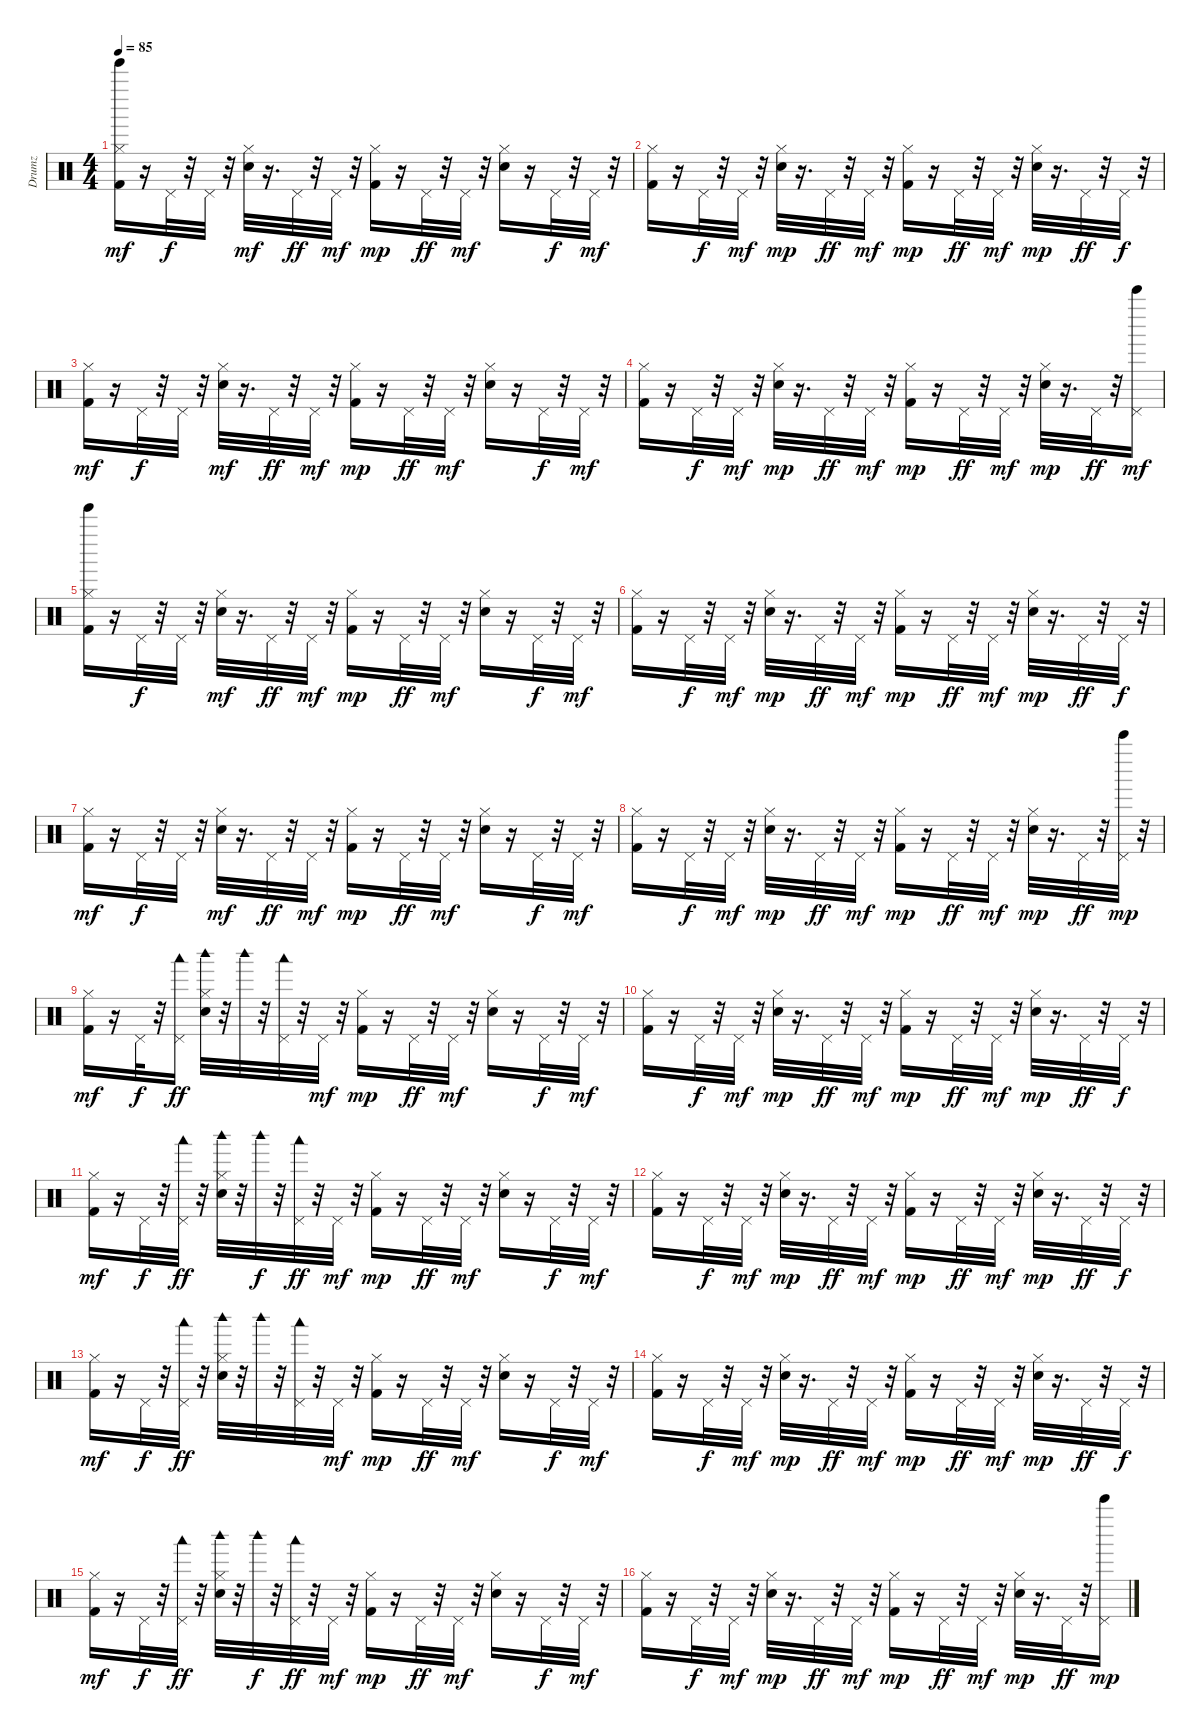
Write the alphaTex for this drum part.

\track ("Drumz" "Drumz") {instrument percussion}
\staff {score}
\articulation defaults
\ts (4 4)
\tempo 85
\clef neutral
\ks c
("Tinkle Bell (hit)" "Kick (hit) 2" "Hi-Hat (closed)").16{dy mf volume 12} r.16 "Pedal Hi-Hat (hit)".32{dy f} r.32 "Pedal Hi-Hat (hit)".32 r.32 ("Hand Clap (hit)" "Hi-Hat (closed)").32{dy mf} r.16{d} "Pedal Hi-Hat (hit)".32{dy ff} r.32 "Pedal Hi-Hat (hit)".32{dy mf} r.32 ("Kick (hit) 2" "Hi-Hat (closed)").16{dy mp} r.16 "Pedal Hi-Hat (hit)".32{dy ff} r.32 "Pedal Hi-Hat (hit)".32{dy mf} r.32 ("Hand Clap (hit)" "Hi-Hat (closed)").16 r.16 "Pedal Hi-Hat (hit)".32{dy f} r.32 "Pedal Hi-Hat (hit)".32{dy mf} r.32 |
("Kick (hit) 2" "Hi-Hat (closed)").16 r.16 "Pedal Hi-Hat (hit)".32{dy f} r.32 "Pedal Hi-Hat (hit)".32{dy mf} r.32 ("Hand Clap (hit)" "Hi-Hat (closed)").32{dy mp} r.16{d} "Pedal Hi-Hat (hit)".32{dy ff} r.32 "Pedal Hi-Hat (hit)".32{dy mf} r.32 ("Kick (hit) 2" "Hi-Hat (closed)").16{dy mp} r.16 "Pedal Hi-Hat (hit)".32{dy ff} r.32 "Pedal Hi-Hat (hit)".32{dy mf} r.32 ("Hand Clap (hit)" "Hi-Hat (closed)").32{dy mp} r.16{d} "Pedal Hi-Hat (hit)".32{dy ff} r.32 "Pedal Hi-Hat (hit)".32{dy f} r.32 |
("Kick (hit) 2" "Hi-Hat (closed)").16{dy mf} r.16 "Pedal Hi-Hat (hit)".32{dy f} r.32 "Pedal Hi-Hat (hit)".32 r.32 ("Hand Clap (hit)" "Hi-Hat (closed)").32{dy mf} r.16{d} "Pedal Hi-Hat (hit)".32{dy ff} r.32 "Pedal Hi-Hat (hit)".32{dy mf} r.32 ("Kick (hit) 2" "Hi-Hat (closed)").16{dy mp} r.16 "Pedal Hi-Hat (hit)".32{dy ff} r.32 "Pedal Hi-Hat (hit)".32{dy mf} r.32 ("Hand Clap (hit)" "Hi-Hat (closed)").16 r.16 "Pedal Hi-Hat (hit)".32{dy f} r.32 "Pedal Hi-Hat (hit)".32{dy mf} r.32 |
("Kick (hit) 2" "Hi-Hat (closed)").16 r.16 "Pedal Hi-Hat (hit)".32{dy f} r.32 "Pedal Hi-Hat (hit)".32{dy mf} r.32 ("Hand Clap (hit)" "Hi-Hat (closed)").32{dy mp} r.16{d} "Pedal Hi-Hat (hit)".32{dy ff} r.32 "Pedal Hi-Hat (hit)".32{dy mf} r.32 ("Kick (hit) 2" "Hi-Hat (closed)").16{dy mp} r.16 "Pedal Hi-Hat (hit)".32{dy ff} r.32 "Pedal Hi-Hat (hit)".32{dy mf} r.32 ("Hand Clap (hit)" "Hi-Hat (closed)").32{dy mp} r.16{d} "Pedal Hi-Hat (hit)".32{dy ff} r.32 ("Pedal Hi-Hat (hit)" "Bell Tree (hit)").16{dy mf} |
("Kick (hit) 2" "Hi-Hat (closed)" "Tinkle Bell (hit)").16 r.16 "Pedal Hi-Hat (hit)".32{dy f} r.32 "Pedal Hi-Hat (hit)".32 r.32 ("Hand Clap (hit)" "Hi-Hat (closed)").32{dy mf} r.16{d} "Pedal Hi-Hat (hit)".32{dy ff} r.32 "Pedal Hi-Hat (hit)".32{dy mf} r.32 ("Kick (hit) 2" "Hi-Hat (closed)").16{dy mp} r.16 "Pedal Hi-Hat (hit)".32{dy ff} r.32 "Pedal Hi-Hat (hit)".32{dy mf} r.32 ("Hand Clap (hit)" "Hi-Hat (closed)").16 r.16 "Pedal Hi-Hat (hit)".32{dy f} r.32 "Pedal Hi-Hat (hit)".32{dy mf} r.32 |
("Kick (hit) 2" "Hi-Hat (closed)").16 r.16 "Pedal Hi-Hat (hit)".32{dy f} r.32 "Pedal Hi-Hat (hit)".32{dy mf} r.32 ("Hand Clap (hit)" "Hi-Hat (closed)").32{dy mp} r.16{d} "Pedal Hi-Hat (hit)".32{dy ff} r.32 "Pedal Hi-Hat (hit)".32{dy mf} r.32 ("Kick (hit) 2" "Hi-Hat (closed)").16{dy mp} r.16 "Pedal Hi-Hat (hit)".32{dy ff} r.32 "Pedal Hi-Hat (hit)".32{dy mf} r.32 ("Hand Clap (hit)" "Hi-Hat (closed)").32{dy mp} r.16{d} "Pedal Hi-Hat (hit)".32{dy ff} r.32 "Pedal Hi-Hat (hit)".32{dy f} r.32 |
("Kick (hit) 2" "Hi-Hat (closed)").16{dy mf} r.16 "Pedal Hi-Hat (hit)".32{dy f} r.32 "Pedal Hi-Hat (hit)".32 r.32 ("Hand Clap (hit)" "Hi-Hat (closed)").32{dy mf} r.16{d} "Pedal Hi-Hat (hit)".32{dy ff} r.32 "Pedal Hi-Hat (hit)".32{dy mf} r.32 ("Kick (hit) 2" "Hi-Hat (closed)").16{dy mp} r.16 "Pedal Hi-Hat (hit)".32{dy ff} r.32 "Pedal Hi-Hat (hit)".32{dy mf} r.32 ("Hand Clap (hit)" "Hi-Hat (closed)").16 r.16 "Pedal Hi-Hat (hit)".32{dy f} r.32 "Pedal Hi-Hat (hit)".32{dy mf} r.32 |
("Kick (hit) 2" "Hi-Hat (closed)").16 r.16 "Pedal Hi-Hat (hit)".32{dy f} r.32 "Pedal Hi-Hat (hit)".32{dy mf} r.32 ("Hand Clap (hit)" "Hi-Hat (closed)").32{dy mp} r.16{d} "Pedal Hi-Hat (hit)".32{dy ff} r.32 "Pedal Hi-Hat (hit)".32{dy mf} r.32 ("Kick (hit) 2" "Hi-Hat (closed)").16{dy mp} r.16 "Pedal Hi-Hat (hit)".32{dy ff} r.32 "Pedal Hi-Hat (hit)".32{dy mf} r.32 ("Hand Clap (hit)" "Hi-Hat (closed)").32{dy mp} r.16{d} "Pedal Hi-Hat (hit)".32{dy ff} r.32 ("Pedal Hi-Hat (hit)" "Bell Tree (hit)").32{dy mp} r.32 |
("Kick (hit) 2" "Hi-Hat (closed)").16{dy mf volume 12} r.16 "Pedal Hi-Hat (hit)".32{dy f} r.32 ("Pedal Hi-Hat (hit)" "Woodblock low (hit)").16{dy ff} ("Hand Clap (hit)" "Hi-Hat (closed)" "Woodblock high (hit)").32 r.32 "Woodblock high (hit)".32 r.32 ("Pedal Hi-Hat (hit)" "Woodblock low (hit)").32 r.32 "Pedal Hi-Hat (hit)".32{dy mf} r.32 ("Kick (hit) 2" "Hi-Hat (closed)").16{dy mp} r.16 "Pedal Hi-Hat (hit)".32{dy ff} r.32 "Pedal Hi-Hat (hit)".32{dy mf} r.32 ("Hand Clap (hit)" "Hi-Hat (closed)").16 r.16 "Pedal Hi-Hat (hit)".32{dy f} r.32 "Pedal Hi-Hat (hit)".32{dy mf} r.32 |
("Kick (hit) 2" "Hi-Hat (closed)").16 r.16 "Pedal Hi-Hat (hit)".32{dy f} r.32 "Pedal Hi-Hat (hit)".32{dy mf} r.32 ("Hand Clap (hit)" "Hi-Hat (closed)").32{dy mp} r.16{d} "Pedal Hi-Hat (hit)".32{dy ff} r.32 "Pedal Hi-Hat (hit)".32{dy mf} r.32 ("Kick (hit) 2" "Hi-Hat (closed)").16{dy mp} r.16 "Pedal Hi-Hat (hit)".32{dy ff} r.32 "Pedal Hi-Hat (hit)".32{dy mf} r.32 ("Hand Clap (hit)" "Hi-Hat (closed)").32{dy mp} r.16{d} "Pedal Hi-Hat (hit)".32{dy ff} r.32 "Pedal Hi-Hat (hit)".32{dy f} r.32 |
("Kick (hit) 2" "Hi-Hat (closed)").16{dy mf} r.16 "Pedal Hi-Hat (hit)".32{dy f} r.32 ("Pedal Hi-Hat (hit)" "Woodblock low (hit)").32{dy ff} r.32 ("Hand Clap (hit)" "Hi-Hat (closed)" "Woodblock high (hit)").32 r.32 "Woodblock high (hit)".32{dy f} r.32 ("Pedal Hi-Hat (hit)" "Woodblock low (hit)").32{dy ff} r.32 "Pedal Hi-Hat (hit)".32{dy mf} r.32 ("Kick (hit) 2" "Hi-Hat (closed)").16{dy mp} r.16 "Pedal Hi-Hat (hit)".32{dy ff} r.32 "Pedal Hi-Hat (hit)".32{dy mf} r.32 ("Hand Clap (hit)" "Hi-Hat (closed)").16 r.16 "Pedal Hi-Hat (hit)".32{dy f} r.32 "Pedal Hi-Hat (hit)".32{dy mf} r.32 |
("Kick (hit) 2" "Hi-Hat (closed)").16 r.16 "Pedal Hi-Hat (hit)".32{dy f} r.32 "Pedal Hi-Hat (hit)".32{dy mf} r.32 ("Hand Clap (hit)" "Hi-Hat (closed)").32{dy mp} r.16{d} "Pedal Hi-Hat (hit)".32{dy ff} r.32 "Pedal Hi-Hat (hit)".32{dy mf} r.32 ("Kick (hit) 2" "Hi-Hat (closed)").16{dy mp} r.16 "Pedal Hi-Hat (hit)".32{dy ff} r.32 "Pedal Hi-Hat (hit)".32{dy mf} r.32 ("Hand Clap (hit)" "Hi-Hat (closed)").32{dy mp} r.16{d} "Pedal Hi-Hat (hit)".32{dy ff} r.32 "Pedal Hi-Hat (hit)".32{dy f} r.32 |
("Kick (hit) 2" "Hi-Hat (closed)").16{dy mf} r.16 "Pedal Hi-Hat (hit)".32{dy f} r.32 ("Pedal Hi-Hat (hit)" "Woodblock low (hit)").32{dy ff} r.32 ("Hand Clap (hit)" "Hi-Hat (closed)" "Woodblock high (hit)").32 r.32 "Woodblock high (hit)".32 r.32 ("Pedal Hi-Hat (hit)" "Woodblock low (hit)").32 r.32 "Pedal Hi-Hat (hit)".32{dy mf} r.32 ("Kick (hit) 2" "Hi-Hat (closed)").16{dy mp} r.16 "Pedal Hi-Hat (hit)".32{dy ff} r.32 "Pedal Hi-Hat (hit)".32{dy mf} r.32 ("Hand Clap (hit)" "Hi-Hat (closed)").16 r.16 "Pedal Hi-Hat (hit)".32{dy f} r.32 "Pedal Hi-Hat (hit)".32{dy mf} r.32 |
("Kick (hit) 2" "Hi-Hat (closed)").16 r.16 "Pedal Hi-Hat (hit)".32{dy f} r.32 "Pedal Hi-Hat (hit)".32{dy mf} r.32 ("Hand Clap (hit)" "Hi-Hat (closed)").32{dy mp} r.16{d} "Pedal Hi-Hat (hit)".32{dy ff} r.32 "Pedal Hi-Hat (hit)".32{dy mf} r.32 ("Kick (hit) 2" "Hi-Hat (closed)").16{dy mp} r.16 "Pedal Hi-Hat (hit)".32{dy ff} r.32 "Pedal Hi-Hat (hit)".32{dy mf} r.32 ("Hand Clap (hit)" "Hi-Hat (closed)").32{dy mp} r.16{d} "Pedal Hi-Hat (hit)".32{dy ff} r.32 "Pedal Hi-Hat (hit)".32{dy f} r.32 |
("Kick (hit) 2" "Hi-Hat (closed)").16{dy mf} r.16 "Pedal Hi-Hat (hit)".32{dy f} r.32 ("Pedal Hi-Hat (hit)" "Woodblock low (hit)").32{dy ff} r.32 ("Hand Clap (hit)" "Hi-Hat (closed)" "Woodblock high (hit)").32 r.32 "Woodblock high (hit)".32{dy f} r.32 ("Pedal Hi-Hat (hit)" "Woodblock low (hit)").32{dy ff} r.32 "Pedal Hi-Hat (hit)".32{dy mf} r.32 ("Kick (hit) 2" "Hi-Hat (closed)").16{dy mp} r.16 "Pedal Hi-Hat (hit)".32{dy ff} r.32 "Pedal Hi-Hat (hit)".32{dy mf} r.32 ("Hand Clap (hit)" "Hi-Hat (closed)").16 r.16 "Pedal Hi-Hat (hit)".32{dy f} r.32 "Pedal Hi-Hat (hit)".32{dy mf} r.32 |
("Kick (hit) 2" "Hi-Hat (closed)").16 r.16 "Pedal Hi-Hat (hit)".32{dy f} r.32 "Pedal Hi-Hat (hit)".32{dy mf} r.32 ("Hand Clap (hit)" "Hi-Hat (closed)").32{dy mp} r.16{d} "Pedal Hi-Hat (hit)".32{dy ff} r.32 "Pedal Hi-Hat (hit)".32{dy mf} r.32 ("Kick (hit) 2" "Hi-Hat (closed)").16{dy mp} r.16 "Pedal Hi-Hat (hit)".32{dy ff} r.32 "Pedal Hi-Hat (hit)".32{dy mf} r.32 ("Hand Clap (hit)" "Hi-Hat (closed)").32{dy mp} r.16{d} "Pedal Hi-Hat (hit)".32{dy ff} r.32 ("Pedal Hi-Hat (hit)" "Bell Tree (hit)").16{dy mp}
